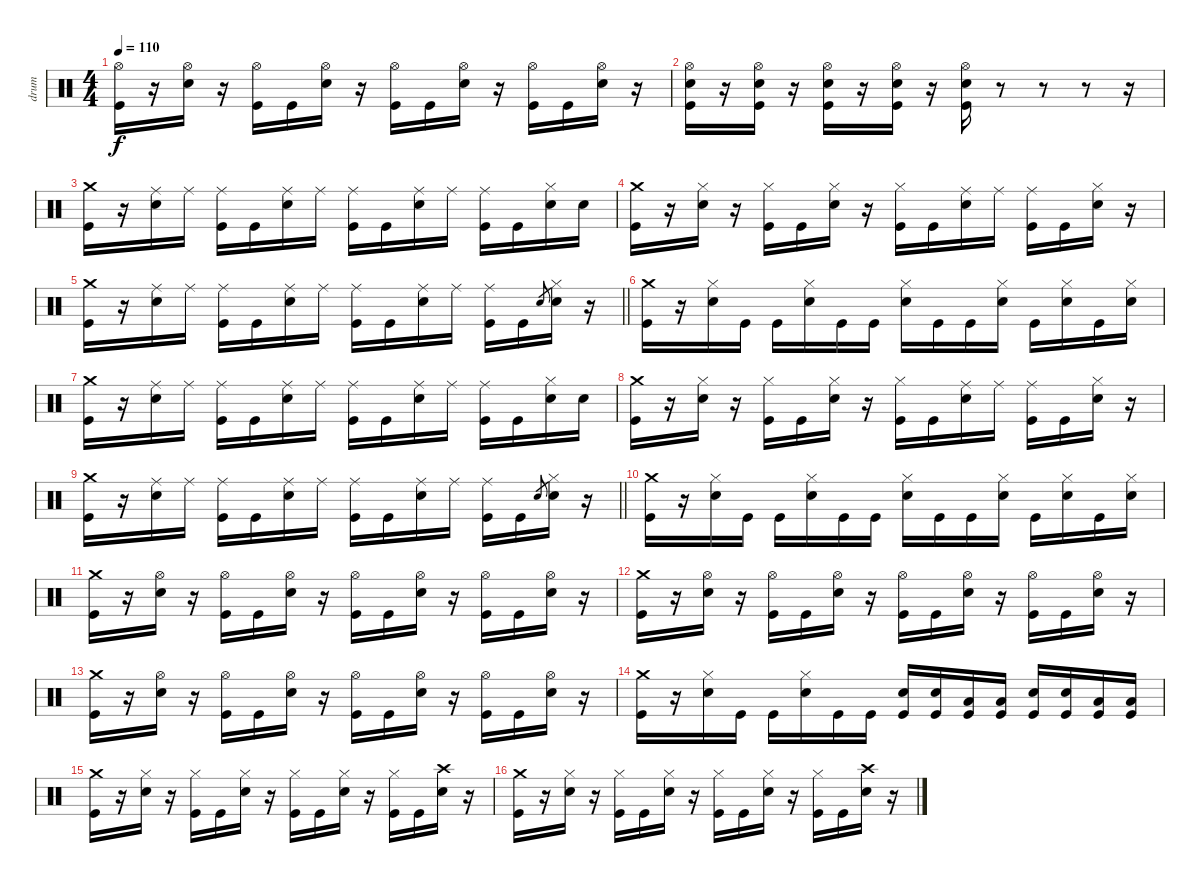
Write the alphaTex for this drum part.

\track ("drum" "drum") {instrument percussion}
\staff {score}
\articulation defaults
\ts (4 4)
\tempo 110
\clef neutral
\ks c
("Hi-Hat (open)" "Kick (hit)").16{dy f} r.16 ("Hi-Hat (open)" "Electric Snare (hit)").16 r.16 ("Hi-Hat (open)" "Kick (hit)").16 "Kick (hit)".16 ("Hi-Hat (open)" "Electric Snare (hit)").16 r.16 ("Hi-Hat (open)" "Kick (hit)").16 "Kick (hit)".16 ("Hi-Hat (open)" "Electric Snare (hit)").16 r.16 ("Hi-Hat (open)" "Kick (hit)").16 "Kick (hit)".16 ("Hi-Hat (open)" "Electric Snare (hit)").16 r.16 |
("Hi-Hat (open)" "Electric Snare (hit)" "Kick (hit)").16 r.16 ("Hi-Hat (open)" "Electric Snare (hit)" "Kick (hit)").16 r.16 ("Hi-Hat (open)" "Electric Snare (hit)" "Kick (hit)").16 r.16 ("Hi-Hat (open)" "Electric Snare (hit)" "Kick (hit)").16 r.16 ("Hi-Hat (open)" "Electric Snare (hit)" "Kick (hit)").16 r.8 r.8 r.8 r.16 |
("Crash medium (hit)" "Kick (hit)").16 r.16 ("Ride (middle)" "Electric Snare (hit)").16 "Ride (middle)".16 ("Ride (middle)" "Kick (hit)").16 "Kick (hit)".16 ("Ride (middle)" "Electric Snare (hit)").16 "Ride (middle)".16 ("Ride (middle)" "Kick (hit)").16 "Kick (hit)".16 ("Ride (middle)" "Electric Snare (hit)").16 "Ride (middle)".16 ("Ride (middle)" "Kick (hit)").16 "Kick (hit)".16 ("Hi-Hat (closed)" "Electric Snare (hit)").16 "Electric Snare (hit)".16 |
("Crash medium (hit)" "Kick (hit)").16 r.16 ("Hi-Hat (closed)" "Electric Snare (hit)").16 r.16 ("Hi-Hat (closed)" "Kick (hit)").16 "Kick (hit)".16 ("Hi-Hat (closed)" "Electric Snare (hit)").16 r.16 ("Hi-Hat (closed)" "Kick (hit)").16 "Kick (hit)".16 ("Ride (middle)" "Electric Snare (hit)").16 "Ride (middle)".16 ("Ride (middle)" "Kick (hit)").16 "Kick (hit)".16 ("Hi-Hat (closed)" "Electric Snare (hit)").16 r.16 |
\barLineRight lightlight
("Crash medium (hit)" "Kick (hit)").16 r.16 ("Ride (middle)" "Electric Snare (hit)").16 "Ride (middle)".16 ("Ride (middle)" "Kick (hit)").16 "Kick (hit)".16 ("Ride (middle)" "Electric Snare (hit)").16 "Ride (middle)".16 ("Ride (middle)" "Kick (hit)").16 "Kick (hit)".16 ("Ride (middle)" "Electric Snare (hit)").16 "Ride (middle)".16 ("Ride (middle)" "Kick (hit)").16 "Kick (hit)".16 "Electric Snare (hit)".8{gr} ("Hi-Hat (closed)" "Electric Snare (hit)").16 r.16 |
("Crash medium (hit)" "Kick (hit)").16 r.16 ("Hi-Hat (closed)" "Electric Snare (hit)").16 "Kick (hit)".16 "Kick (hit)".16 ("Hi-Hat (closed)" "Electric Snare (hit)").16 "Kick (hit)".16 "Kick (hit)".16 ("Hi-Hat (closed)" "Electric Snare (hit)").16 "Kick (hit)".16 "Kick (hit)".16 ("Hi-Hat (closed)" "Electric Snare (hit)").16 "Kick (hit)".16 ("Hi-Hat (closed)" "Electric Snare (hit)").16 "Kick (hit)".16 ("Hi-Hat (closed)" "Electric Snare (hit)").16 |
("Crash medium (hit)" "Kick (hit)").16 r.16 ("Ride (middle)" "Electric Snare (hit)").16 "Ride (middle)".16 ("Ride (middle)" "Kick (hit)").16 "Kick (hit)".16 ("Ride (middle)" "Electric Snare (hit)").16 "Ride (middle)".16 ("Ride (middle)" "Kick (hit)").16 "Kick (hit)".16 ("Ride (middle)" "Electric Snare (hit)").16 "Ride (middle)".16 ("Ride (middle)" "Kick (hit)").16 "Kick (hit)".16 ("Hi-Hat (closed)" "Electric Snare (hit)").16 "Electric Snare (hit)".16 |
("Crash medium (hit)" "Kick (hit)").16 r.16 ("Hi-Hat (closed)" "Electric Snare (hit)").16 r.16 ("Hi-Hat (closed)" "Kick (hit)").16 "Kick (hit)".16 ("Hi-Hat (closed)" "Electric Snare (hit)").16 r.16 ("Hi-Hat (closed)" "Kick (hit)").16 "Kick (hit)".16 ("Ride (middle)" "Electric Snare (hit)").16 "Ride (middle)".16 ("Ride (middle)" "Kick (hit)").16 "Kick (hit)".16 ("Hi-Hat (closed)" "Electric Snare (hit)").16 r.16 |
\barLineRight lightlight
("Crash medium (hit)" "Kick (hit)").16 r.16 ("Ride (middle)" "Electric Snare (hit)").16 "Ride (middle)".16 ("Ride (middle)" "Kick (hit)").16 "Kick (hit)".16 ("Ride (middle)" "Electric Snare (hit)").16 "Ride (middle)".16 ("Ride (middle)" "Kick (hit)").16 "Kick (hit)".16 ("Ride (middle)" "Electric Snare (hit)").16 "Ride (middle)".16 ("Ride (middle)" "Kick (hit)").16 "Kick (hit)".16 "Electric Snare (hit)".8{gr} ("Hi-Hat (closed)" "Electric Snare (hit)").16 r.16 |
("Crash medium (hit)" "Kick (hit)").16 r.16 ("Hi-Hat (closed)" "Electric Snare (hit)").16 "Kick (hit)".16 "Kick (hit)".16 ("Hi-Hat (closed)" "Electric Snare (hit)").16 "Kick (hit)".16 "Kick (hit)".16 ("Hi-Hat (closed)" "Electric Snare (hit)").16 "Kick (hit)".16 "Kick (hit)".16 ("Hi-Hat (closed)" "Electric Snare (hit)").16 "Kick (hit)".16 ("Hi-Hat (closed)" "Electric Snare (hit)").16 "Kick (hit)".16 ("Hi-Hat (closed)" "Electric Snare (hit)").16 |
("Crash medium (hit)" "Kick (hit)").16 r.16 ("Hi-Hat (open)" "Electric Snare (hit)").16 r.16 ("Hi-Hat (open)" "Kick (hit)").16 "Kick (hit)".16 ("Hi-Hat (open)" "Electric Snare (hit)").16 r.16 ("Hi-Hat (open)" "Kick (hit)").16 "Kick (hit)".16 ("Hi-Hat (open)" "Electric Snare (hit)").16 r.16 ("Hi-Hat (open)" "Kick (hit)").16 "Kick (hit)".16 ("Hi-Hat (open)" "Electric Snare (hit)").16 r.16 |
("Crash medium (hit)" "Kick (hit)").16 r.16 ("Hi-Hat (open)" "Electric Snare (hit)").16 r.16 ("Hi-Hat (open)" "Kick (hit)").16 "Kick (hit)".16 ("Hi-Hat (open)" "Electric Snare (hit)").16 r.16 ("Hi-Hat (open)" "Kick (hit)").16 "Kick (hit)".16 ("Hi-Hat (open)" "Electric Snare (hit)").16 r.16 ("Hi-Hat (open)" "Kick (hit)").16 "Kick (hit)".16 ("Hi-Hat (open)" "Electric Snare (hit)").16 r.16 |
("Crash medium (hit)" "Kick (hit)").16 r.16 ("Hi-Hat (open)" "Electric Snare (hit)").16 r.16 ("Hi-Hat (open)" "Kick (hit)").16 "Kick (hit)".16 ("Hi-Hat (open)" "Electric Snare (hit)").16 r.16 ("Hi-Hat (open)" "Kick (hit)").16 "Kick (hit)".16 ("Hi-Hat (open)" "Electric Snare (hit)").16 r.16 ("Hi-Hat (open)" "Kick (hit)").16 "Kick (hit)".16 ("Hi-Hat (open)" "Electric Snare (hit)").16 r.16 |
("Crash medium (hit)" "Kick (hit)").16 r.16 ("Hi-Hat (closed)" "Electric Snare (hit)").16 "Kick (hit)".16 "Kick (hit)".16 ("Hi-Hat (closed)" "Electric Snare (hit)").16 "Kick (hit)".16 "Kick (hit)".16 ("Electric Snare (hit)" "Kick (hit)").16 ("Electric Snare (hit)" "Kick (hit)").16 ("Low Tom (hit)" "Kick (hit)").16 ("Low Tom (hit)" "Kick (hit)").16 ("Electric Snare (hit)" "Kick (hit)").16 ("Electric Snare (hit)" "Kick (hit)").16 ("Low Tom (hit)" "Kick (hit)").16 ("Low Tom (hit)" "Kick (hit)").16 |
("Crash medium (hit)" "Kick (hit)").16 r.16 ("Hi-Hat (closed)" "Electric Snare (hit)").16 r.16 ("Hi-Hat (closed)" "Kick (hit)").16 "Kick (hit)".16 ("Hi-Hat (closed)" "Electric Snare (hit)").16 r.16 ("Hi-Hat (closed)" "Kick (hit)").16 "Kick (hit)".16 ("Hi-Hat (closed)" "Electric Snare (hit)").16 r.16 ("Hi-Hat (closed)" "Kick (hit)").16 "Kick (hit)".16 ("Crash high (hit)" "Electric Snare (hit)").16 r.16 |
("Crash medium (hit)" "Kick (hit)").16 r.16 ("Hi-Hat (closed)" "Electric Snare (hit)").16 r.16 ("Hi-Hat (closed)" "Kick (hit)").16 "Kick (hit)".16 ("Hi-Hat (closed)" "Electric Snare (hit)").16 r.16 ("Hi-Hat (closed)" "Kick (hit)").16 "Kick (hit)".16 ("Hi-Hat (closed)" "Electric Snare (hit)").16 r.16 ("Hi-Hat (closed)" "Kick (hit)").16 "Kick (hit)".16 ("Crash high (hit)" "Electric Snare (hit)").16 r.16
